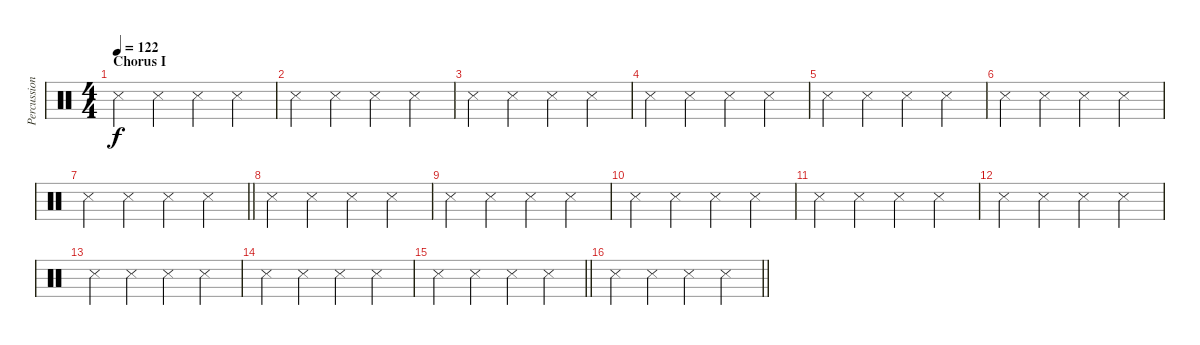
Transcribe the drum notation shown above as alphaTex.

\track ("Percussion" "Percussion") {instrument percussion}
\staff {score}
\articulation defaults
\ts (4 4)
\section ("" "Chorus I")
\tempo 122
\clef neutral
\ks c "Snare (side stick) 3".4{dy f} "Metronome (hit)".4 "Metronome (hit)".4 "Metronome (hit)".4
|
"Snare (side stick) 3".4 "Metronome (hit)".4 "Metronome (hit)".4 "Metronome (hit)".4 |
"Snare (side stick) 3".4 "Metronome (hit)".4 "Metronome (hit)".4 "Metronome (hit)".4 |
"Snare (side stick) 3".4 "Metronome (hit)".4 "Metronome (hit)".4 "Metronome (hit)".4 |
"Snare (side stick) 3".4 "Metronome (hit)".4 "Metronome (hit)".4 "Metronome (hit)".4 |
"Snare (side stick) 3".4 "Metronome (hit)".4 "Metronome (hit)".4 "Metronome (hit)".4 |
\barLineRight lightlight "Snare (side stick) 3".4 "Metronome (hit)".4 "Metronome (hit)".4 "Metronome (hit)".4
|
"Snare (side stick) 3".4 "Metronome (hit)".4 "Metronome (hit)".4 "Metronome (hit)".4 |
"Snare (side stick) 3".4 "Metronome (hit)".4 "Metronome (hit)".4 "Metronome (hit)".4 |
"Snare (side stick) 3".4 "Metronome (hit)".4 "Metronome (hit)".4 "Metronome (hit)".4 |
"Snare (side stick) 3".4 "Metronome (hit)".4 "Metronome (hit)".4 "Metronome (hit)".4 |
"Snare (side stick) 3".4 "Metronome (hit)".4 "Metronome (hit)".4 "Metronome (hit)".4 |
"Snare (side stick) 3".4 "Metronome (hit)".4 "Metronome (hit)".4 "Metronome (hit)".4 |
"Snare (side stick) 3".4 "Metronome (hit)".4 "Metronome (hit)".4 "Metronome (hit)".4 |
\barLineRight lightlight "Snare (side stick) 3".4 "Metronome (hit)".4 "Metronome (hit)".4 "Metronome (hit)".4
|
\barLineRight lightlight "Snare (side stick) 3".4 "Metronome (hit)".4 "Metronome (hit)".4 "Metronome (hit)".4
